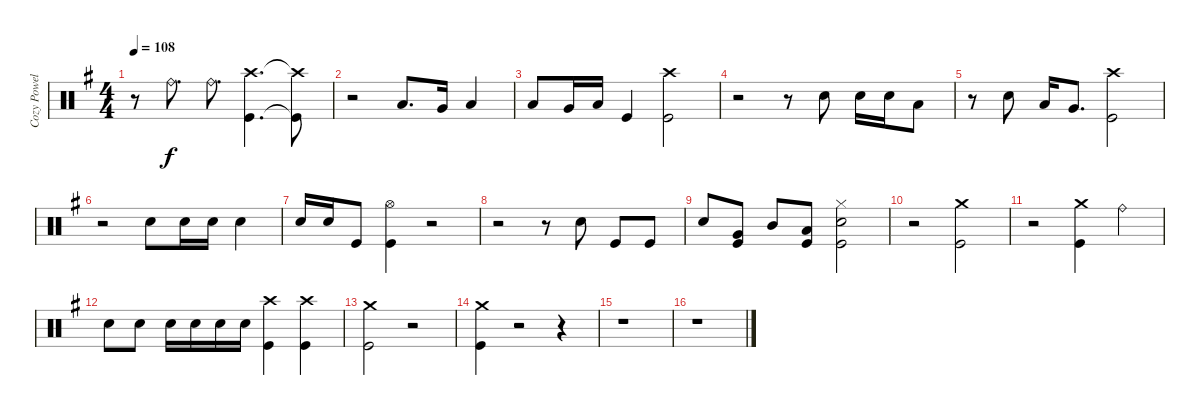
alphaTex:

\track ("Cozy Powell Drums" "Cozy Powel") {instrument percussion}
\staff {score}
\articulation defaults
\ts (4 4)
\tempo 108
\clef neutral
\ks g
r.8{dy f} "Ride (bell)".8{d} "Ride (bell)".8{d} ("Crash high (hit)" "Kick (hit)").4{d} ("Crash high (hit)"{t} "Kick (hit)"{t}).8 |
r.2 "Low Tom (hit)".8{d} "Very Low Tom (hit)".16 "Low Floor Tom (hit)".4 |
"Low Tom (hit)".8 "Very Low Tom (hit)".16 "Low Floor Tom (hit)".16 "Kick (hit)".4 ("Crash high (hit)" "Kick (hit)").2 |
r.2 r.8 "Snare (hit) 2".8 "Snare (hit) 2".16 "Snare (hit) 2".16 "Low Tom (hit)".8 |
r.8 "Snare (hit) 2".8 "Low Tom (hit)".16 "Very Low Tom (hit)".8{d} ("Crash high (hit)" "Kick (hit)").2 |
r.2 "Snare (hit) 2".8 "Snare (hit) 2".16 "Snare (hit) 2".16 "Snare (hit) 2".4 |
"Snare (hit) 2".16 "Snare (hit) 2".16 "Kick (hit)".8 ("Hi-Hat (open)" "Kick (hit)").4 r.2 |
r.2 r.8 "Snare (hit) 2".8 "Kick (hit)".8 "Kick (hit)".8 |
"Snare (hit) 2".8 ("Very Low Tom (hit)" "Kick (hit)").8 "Mid Tom (hit)".8 ("Low Floor Tom (hit)" "Kick (hit)").8 ("Hi-Hat (closed)" "Snare (hit) 2" "Kick (hit)").2 |
r.2 ("Crash medium (hit)" "Kick (hit)").2 |
r.2 ("Crash medium (hit)" "Kick (hit)").4 "Ride (bell)".4 |
"Snare (hit) 2".8 "Snare (hit) 2".8 "Snare (hit) 2".16 "Snare (hit) 2".16 "Snare (hit) 2".16 "Snare (hit) 2".16 ("Crash high (hit)" "Kick (hit)").4 ("Crash high (hit)" "Kick (hit)").4 |
("Crash medium (hit)" "Kick (hit)").2 r.2 |
("Crash medium (hit)" "Kick (hit)").4 r.2 r.4 |
r.1 |
r.1
